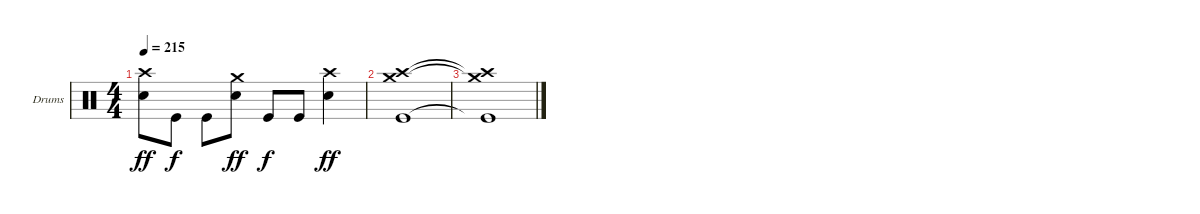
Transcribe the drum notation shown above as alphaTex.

\bracketExtendMode groupsimilarinstruments
\firstSystemTrackNameOrientation horizontal
\otherSystemsTrackNameOrientation horizontal
\track ("Drumkit" "Drums") {instrument percussion}
\staff {score}
\articulation defaults
\ts (4 4)
\tempo 215
\clef neutral
\ks c
("Crash high (hit)" "Snare (hit) 2").8{dy ff} "Kick (hit)".8{dy f} "Kick (hit)".8 ("Crash medium (hit)" "Snare (hit) 2").8{dy ff} "Kick (hit)".8{dy f} "Kick (hit)".8 ("Crash high (hit)" "Snare (hit) 2").4{dy ff} |
("Kick (hit)" "Crash high (hit)" "Crash medium (hit)").1 |
("Kick (hit)"{t} "Crash high (hit)"{t} "Crash medium (hit)"{t}).1
